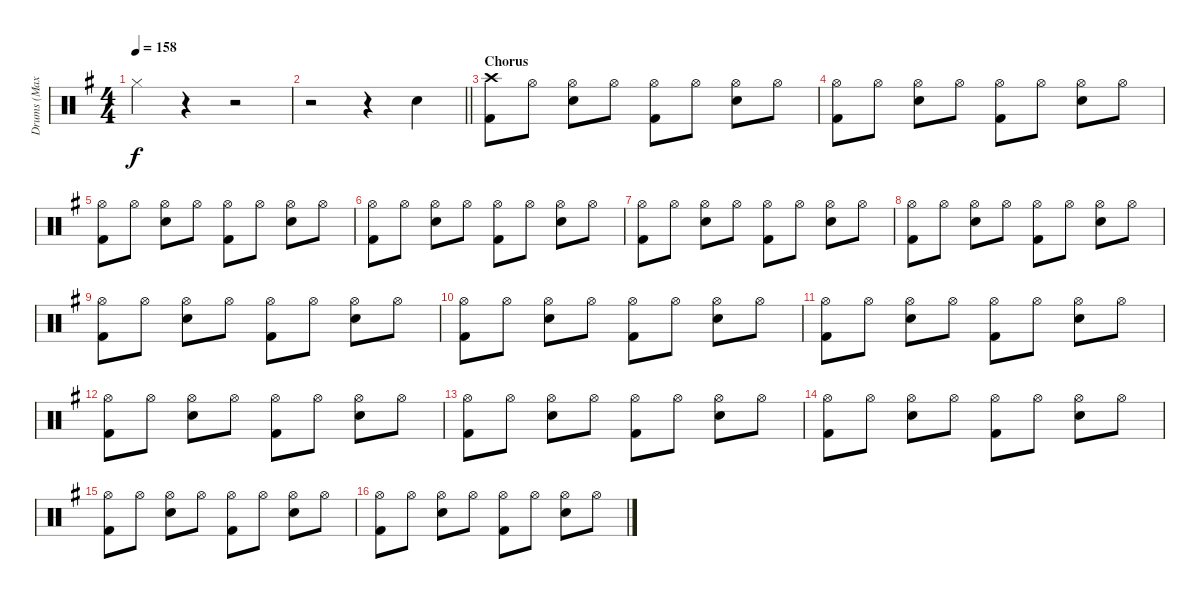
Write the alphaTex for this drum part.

\track ("Drums (Max)" "Drums (Max") {instrument percussion}
\staff {score}
\articulation defaults
\ts (4 4)
\tempo 158
\clef neutral
\ks g "Hi-Hat (closed)".4{dy f}
r.4 r.2 |
\barLineRight lightlight
r.2 r.4 "Snare (hit) 2".4 |
\section ("" "Chorus")
("Crash high (hit)" "Kick (hit) 2").8 "Hi-Hat (open)".8 ("Hi-Hat (open)" "Snare (hit) 2").8 "Hi-Hat (open)".8 ("Hi-Hat (open)" "Kick (hit) 2").8 "Hi-Hat (open)".8 ("Hi-Hat (open)" "Snare (hit) 2").8 "Hi-Hat (open)".8 |
("Hi-Hat (open)" "Kick (hit) 2").8 "Hi-Hat (open)".8 ("Hi-Hat (open)" "Snare (hit) 2").8 "Hi-Hat (open)".8 ("Hi-Hat (open)" "Kick (hit) 2").8 "Hi-Hat (open)".8 ("Hi-Hat (open)" "Snare (hit) 2").8 "Hi-Hat (open)".8 |
("Hi-Hat (open)" "Kick (hit) 2").8 "Hi-Hat (open)".8 ("Hi-Hat (open)" "Snare (hit) 2").8 "Hi-Hat (open)".8 ("Hi-Hat (open)" "Kick (hit) 2").8 "Hi-Hat (open)".8 ("Hi-Hat (open)" "Snare (hit) 2").8 "Hi-Hat (open)".8 |
("Hi-Hat (open)" "Kick (hit) 2").8 "Hi-Hat (open)".8 ("Hi-Hat (open)" "Snare (hit) 2").8 "Hi-Hat (open)".8 ("Hi-Hat (open)" "Kick (hit) 2").8 "Hi-Hat (open)".8 ("Hi-Hat (open)" "Snare (hit) 2").8 "Hi-Hat (open)".8 |
("Hi-Hat (open)" "Kick (hit) 2").8 "Hi-Hat (open)".8 ("Hi-Hat (open)" "Snare (hit) 2").8 "Hi-Hat (open)".8 ("Hi-Hat (open)" "Kick (hit) 2").8 "Hi-Hat (open)".8 ("Hi-Hat (open)" "Snare (hit) 2").8 "Hi-Hat (open)".8 |
("Hi-Hat (open)" "Kick (hit) 2").8 "Hi-Hat (open)".8 ("Hi-Hat (open)" "Snare (hit) 2").8 "Hi-Hat (open)".8 ("Hi-Hat (open)" "Kick (hit) 2").8 "Hi-Hat (open)".8 ("Hi-Hat (open)" "Snare (hit) 2").8 "Hi-Hat (open)".8 |
("Hi-Hat (open)" "Kick (hit) 2").8 "Hi-Hat (open)".8 ("Hi-Hat (open)" "Snare (hit) 2").8 "Hi-Hat (open)".8 ("Hi-Hat (open)" "Kick (hit) 2").8 "Hi-Hat (open)".8 ("Hi-Hat (open)" "Snare (hit) 2").8 "Hi-Hat (open)".8 |
("Hi-Hat (open)" "Kick (hit) 2").8 "Hi-Hat (open)".8 ("Hi-Hat (open)" "Snare (hit) 2").8 "Hi-Hat (open)".8 ("Hi-Hat (open)" "Kick (hit) 2").8 "Hi-Hat (open)".8 ("Hi-Hat (open)" "Snare (hit) 2").8 "Hi-Hat (open)".8 |
("Hi-Hat (open)" "Kick (hit) 2").8 "Hi-Hat (open)".8 ("Hi-Hat (open)" "Snare (hit) 2").8 "Hi-Hat (open)".8 ("Hi-Hat (open)" "Kick (hit) 2").8 "Hi-Hat (open)".8 ("Hi-Hat (open)" "Snare (hit) 2").8 "Hi-Hat (open)".8 |
("Hi-Hat (open)" "Kick (hit) 2").8 "Hi-Hat (open)".8 ("Hi-Hat (open)" "Snare (hit) 2").8 "Hi-Hat (open)".8 ("Hi-Hat (open)" "Kick (hit) 2").8 "Hi-Hat (open)".8 ("Hi-Hat (open)" "Snare (hit) 2").8 "Hi-Hat (open)".8 |
("Hi-Hat (open)" "Kick (hit) 2").8 "Hi-Hat (open)".8 ("Hi-Hat (open)" "Snare (hit) 2").8 "Hi-Hat (open)".8 ("Hi-Hat (open)" "Kick (hit) 2").8 "Hi-Hat (open)".8 ("Hi-Hat (open)" "Snare (hit) 2").8 "Hi-Hat (open)".8 |
("Hi-Hat (open)" "Kick (hit) 2").8 "Hi-Hat (open)".8 ("Hi-Hat (open)" "Snare (hit) 2").8 "Hi-Hat (open)".8 ("Hi-Hat (open)" "Kick (hit) 2").8 "Hi-Hat (open)".8 ("Hi-Hat (open)" "Snare (hit) 2").8 "Hi-Hat (open)".8 |
("Hi-Hat (open)" "Kick (hit) 2").8 "Hi-Hat (open)".8 ("Hi-Hat (open)" "Snare (hit) 2").8 "Hi-Hat (open)".8 ("Hi-Hat (open)" "Kick (hit) 2").8 "Hi-Hat (open)".8 ("Hi-Hat (open)" "Snare (hit) 2").8 "Hi-Hat (open)".8 |
("Hi-Hat (open)" "Kick (hit) 2").8 "Hi-Hat (open)".8 ("Hi-Hat (open)" "Snare (hit) 2").8 "Hi-Hat (open)".8 ("Hi-Hat (open)" "Kick (hit) 2").8 "Hi-Hat (open)".8 ("Hi-Hat (open)" "Snare (hit) 2").8 "Hi-Hat (open)".8
